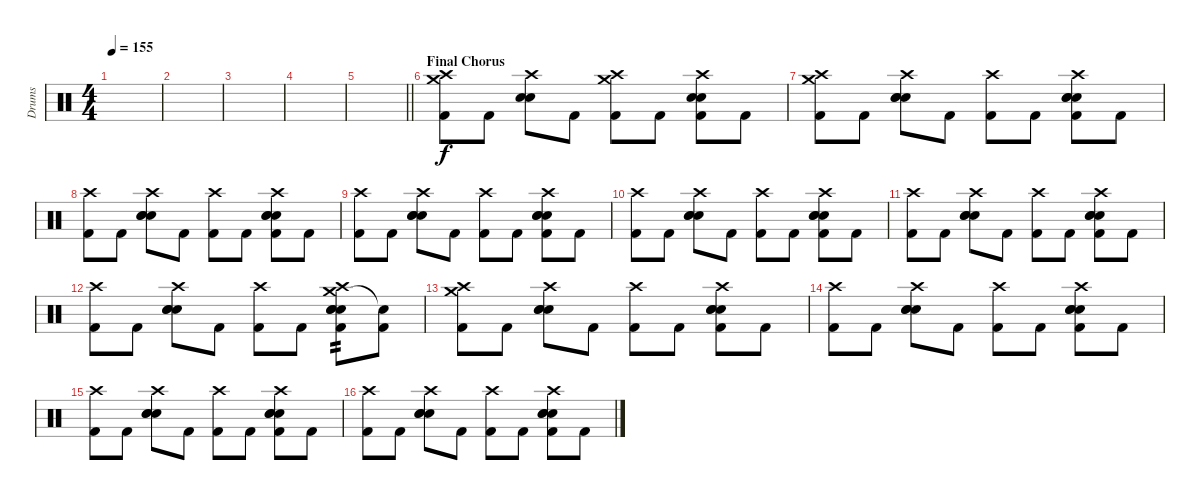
\track ("Drums" "Drums") {instrument percussion}
\staff {score}
\articulation defaults
\ts (4 4)
\tempo 155
\clef neutral
\ks c
|
|
|
|
\barLineRight lightlight
|
\section ("" "Final Chorus")
("Crash medium (hit)" "Crash high (hit)" "Kick (hit) 2").8 "Kick (hit) 2".8 ("Crash high (hit)" "Electric Snare (hit)" "Snare (hit) 2").8 "Kick (hit) 2".8 ("Crash medium (hit)" "Crash high (hit)" "Kick (hit) 2").8 "Kick (hit) 2".8 ("Crash high (hit)" "Electric Snare (hit)" "Snare (hit) 2" "Kick (hit) 2").8 "Kick (hit) 2".8 |
("Crash medium (hit)" "Crash high (hit)" "Kick (hit) 2").8 "Kick (hit) 2".8 ("Crash high (hit)" "Hand Clap (hit)" "Electric Snare (hit)" "Snare (hit) 2").8 "Kick (hit) 2".8 ("Crash high (hit)" "Kick (hit) 2").8 "Kick (hit) 2".8 ("Crash high (hit)" "Hand Clap (hit)" "Electric Snare (hit)" "Snare (hit) 2" "Kick (hit) 2").8 "Kick (hit) 2".8 |
("Crash high (hit)" "Kick (hit) 2").8 "Kick (hit) 2".8 ("Crash high (hit)" "Hand Clap (hit)" "Electric Snare (hit)" "Snare (hit) 2").8 "Kick (hit) 2".8 ("Crash high (hit)" "Kick (hit) 2").8 "Kick (hit) 2".8 ("Crash high (hit)" "Hand Clap (hit)" "Electric Snare (hit)" "Snare (hit) 2" "Kick (hit) 2").8 "Kick (hit) 2".8 |
("Crash high (hit)" "Kick (hit) 2").8 "Kick (hit) 2".8 ("Crash high (hit)" "Hand Clap (hit)" "Electric Snare (hit)" "Snare (hit) 2").8 "Kick (hit) 2".8 ("Crash high (hit)" "Kick (hit) 2").8 "Kick (hit) 2".8 ("Crash high (hit)" "Hand Clap (hit)" "Electric Snare (hit)" "Snare (hit) 2" "Kick (hit) 2").8 "Kick (hit) 2".8 |
("Crash high (hit)" "Kick (hit) 2").8 "Kick (hit) 2".8 ("Crash high (hit)" "Hand Clap (hit)" "Electric Snare (hit)" "Snare (hit) 2").8 "Kick (hit) 2".8 ("Crash high (hit)" "Kick (hit) 2").8 "Kick (hit) 2".8 ("Crash high (hit)" "Hand Clap (hit)" "Electric Snare (hit)" "Snare (hit) 2" "Kick (hit) 2").8 "Kick (hit) 2".8 |
("Crash high (hit)" "Kick (hit) 2").8 "Kick (hit) 2".8 ("Crash high (hit)" "Hand Clap (hit)" "Electric Snare (hit)" "Snare (hit) 2").8 "Kick (hit) 2".8 ("Crash high (hit)" "Kick (hit) 2").8 "Kick (hit) 2".8 ("Crash high (hit)" "Hand Clap (hit)" "Electric Snare (hit)" "Snare (hit) 2" "Kick (hit) 2").8 "Kick (hit) 2".8 |
("Crash high (hit)" "Kick (hit) 2").8 "Kick (hit) 2".8 ("Crash high (hit)" "Hand Clap (hit)" "Electric Snare (hit)" "Snare (hit) 2").8 "Kick (hit) 2".8 ("Crash high (hit)" "Kick (hit) 2").8 "Kick (hit) 2".8 ("Crash medium (hit)" "Crash high (hit)" "Hand Clap (hit)" "Electric Snare (hit)" "Snare (hit) 2" "Kick (hit) 2").8{tp 2} ("Snare (hit)"{t} "Kick (hit) 2").8 |
("Crash medium (hit)" "Crash high (hit)" "Kick (hit) 2").8 "Kick (hit) 2".8 ("Crash high (hit)" "Hand Clap (hit)" "Electric Snare (hit)" "Snare (hit) 2").8 "Kick (hit) 2".8 ("Crash high (hit)" "Kick (hit) 2").8 "Kick (hit) 2".8 ("Crash high (hit)" "Hand Clap (hit)" "Electric Snare (hit)" "Snare (hit) 2" "Kick (hit) 2").8 "Kick (hit) 2".8 |
("Crash high (hit)" "Kick (hit) 2").8 "Kick (hit) 2".8 ("Crash high (hit)" "Hand Clap (hit)" "Electric Snare (hit)" "Snare (hit) 2").8 "Kick (hit) 2".8 ("Crash high (hit)" "Kick (hit) 2").8 "Kick (hit) 2".8 ("Crash high (hit)" "Hand Clap (hit)" "Electric Snare (hit)" "Snare (hit) 2" "Kick (hit) 2").8 "Kick (hit) 2".8 |
("Crash high (hit)" "Kick (hit) 2").8 "Kick (hit) 2".8 ("Crash high (hit)" "Hand Clap (hit)" "Electric Snare (hit)" "Snare (hit) 2").8 "Kick (hit) 2".8 ("Crash high (hit)" "Kick (hit) 2").8 "Kick (hit) 2".8 ("Crash high (hit)" "Hand Clap (hit)" "Electric Snare (hit)" "Snare (hit) 2" "Kick (hit) 2").8 "Kick (hit) 2".8 |
("Crash high (hit)" "Kick (hit) 2").8 "Kick (hit) 2".8 ("Crash high (hit)" "Hand Clap (hit)" "Electric Snare (hit)" "Snare (hit) 2").8 "Kick (hit) 2".8 ("Crash high (hit)" "Kick (hit) 2").8 "Kick (hit) 2".8 ("Crash high (hit)" "Hand Clap (hit)" "Electric Snare (hit)" "Snare (hit) 2" "Kick (hit) 2").8 "Kick (hit) 2".8
